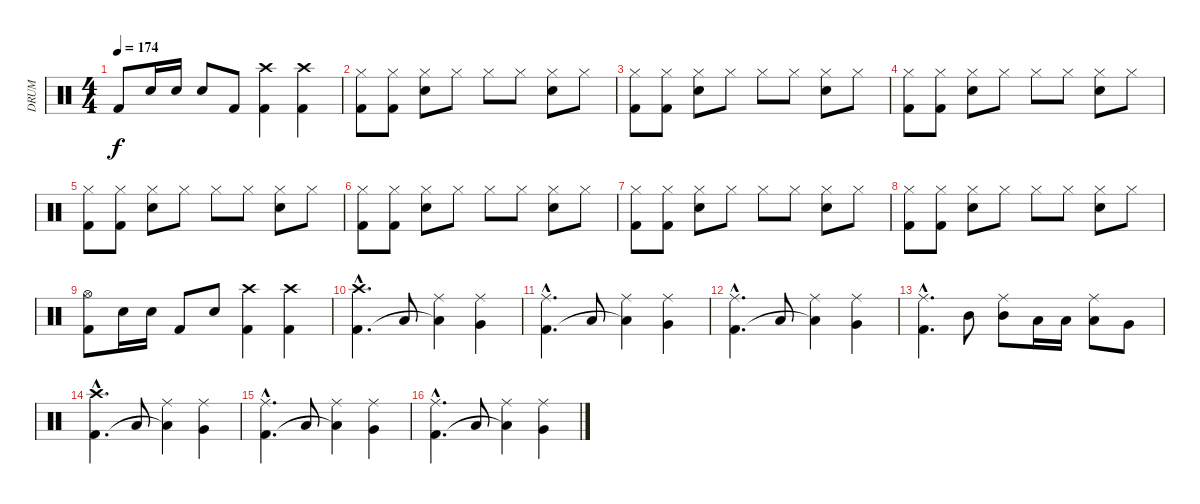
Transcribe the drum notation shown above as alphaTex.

\track ("DRUM" "DRUM") {instrument percussion}
\staff {score}
\articulation defaults
\ts (4 4)
\tempo 174
\clef neutral
\ks c "Kick (hit) 2".8{dy f} "Snare (hit) 2".16 "Snare (hit) 2".16 "Snare (hit) 2".8 "Kick (hit) 2".8
("Crash high (hit)" "Kick (hit) 2").4 ("Crash high (hit)" "Kick (hit) 2").4 |
("Hi-Hat (closed)" "Kick (hit) 2").8 ("Hi-Hat (closed)" "Kick (hit) 2").8 ("Hi-Hat (closed)" "Snare (hit) 2").8 "Hi-Hat (closed)".8 "Hi-Hat (closed)".8 "Hi-Hat (closed)".8 ("Hi-Hat (closed)" "Snare (hit) 2").8 "Hi-Hat (closed)".8 |
("Hi-Hat (closed)" "Kick (hit) 2").8 ("Hi-Hat (closed)" "Kick (hit) 2").8 ("Hi-Hat (closed)" "Snare (hit) 2").8 "Hi-Hat (closed)".8 "Hi-Hat (closed)".8 "Hi-Hat (closed)".8 ("Hi-Hat (closed)" "Snare (hit) 2").8 "Hi-Hat (closed)".8 |
("Hi-Hat (closed)" "Kick (hit) 2").8 ("Hi-Hat (closed)" "Kick (hit) 2").8 ("Hi-Hat (closed)" "Snare (hit) 2").8 "Hi-Hat (closed)".8 "Hi-Hat (closed)".8 "Hi-Hat (closed)".8 ("Hi-Hat (closed)" "Snare (hit) 2").8 "Hi-Hat (closed)".8 |
("Hi-Hat (closed)" "Kick (hit) 2").8 ("Hi-Hat (closed)" "Kick (hit) 2").8 ("Hi-Hat (closed)" "Snare (hit) 2").8 "Hi-Hat (closed)".8 "Hi-Hat (closed)".8 "Hi-Hat (closed)".8 ("Hi-Hat (closed)" "Snare (hit) 2").8 "Hi-Hat (closed)".8 |
("Hi-Hat (closed)" "Kick (hit) 2").8 ("Hi-Hat (closed)" "Kick (hit) 2").8 ("Hi-Hat (closed)" "Snare (hit) 2").8 "Hi-Hat (closed)".8 "Hi-Hat (closed)".8 "Hi-Hat (closed)".8 ("Hi-Hat (closed)" "Snare (hit) 2").8 "Hi-Hat (closed)".8 |
("Hi-Hat (closed)" "Kick (hit) 2").8 ("Hi-Hat (closed)" "Kick (hit) 2").8 ("Hi-Hat (closed)" "Snare (hit) 2").8 "Hi-Hat (closed)".8 "Hi-Hat (closed)".8 "Hi-Hat (closed)".8 ("Hi-Hat (closed)" "Snare (hit) 2").8 "Hi-Hat (closed)".8 |
("Hi-Hat (closed)" "Kick (hit) 2").8 ("Hi-Hat (closed)" "Kick (hit) 2").8 ("Hi-Hat (closed)" "Snare (hit) 2").8 "Hi-Hat (closed)".8 "Hi-Hat (closed)".8 "Hi-Hat (closed)".8 ("Hi-Hat (closed)" "Snare (hit) 2").8 "Hi-Hat (closed)".8 |
("Hi-Hat (open)" "Kick (hit) 2").8 "Snare (hit) 2".16 "Snare (hit) 2".16 "Kick (hit) 2".8 "Snare (hit) 2".8 ("Crash high (hit)" "Kick (hit) 2").4 ("Crash high (hit)" "Kick (hit) 2").4 |
("Crash high (hit)"{hac} "Kick (hit) 2"{hac}).4{d} "Low Tom (hit)".8 ("Ride (middle)" "Low Floor Tom (hit)"{t}).4 ("Ride (middle)" "Very Low Tom (hit)").4 |
("Ride (middle)"{hac} "Kick (hit) 2"{hac}).4{d} "Low Tom (hit)".8 ("Ride (middle)" "Low Floor Tom (hit)"{t}).4 ("Ride (middle)" "Very Low Tom (hit)").4 |
("Ride (middle)"{hac} "Kick (hit) 2"{hac}).4{d} "Low Tom (hit)".8 ("Ride (middle)" "Low Floor Tom (hit)"{t}).4 ("Ride (middle)" "Very Low Tom (hit)").4 |
("Ride (middle)"{hac} "Kick (hit) 2"{hac}).4{d} "Mid Tom (hit)".8 ("Ride (middle)" "Mid Tom (hit)").8 "Low Tom (hit)".16 "Low Tom (hit)".16 ("Ride (middle)" "Low Tom (hit)").8 "Very Low Tom (hit)".8 |
("Crash high (hit)"{hac} "Kick (hit) 2"{hac}).4{d} "Low Tom (hit)".8 ("Ride (middle)" "Low Floor Tom (hit)"{t}).4 ("Ride (middle)" "Very Low Tom (hit)").4 |
("Ride (middle)"{hac} "Kick (hit) 2"{hac}).4{d} "Low Tom (hit)".8 ("Ride (middle)" "Low Floor Tom (hit)"{t}).4 ("Ride (middle)" "Very Low Tom (hit)").4 |
("Ride (middle)"{hac} "Kick (hit) 2"{hac}).4{d} "Low Tom (hit)".8 ("Ride (middle)" "Low Floor Tom (hit)"{t}).4 ("Ride (middle)" "Very Low Tom (hit)").4
